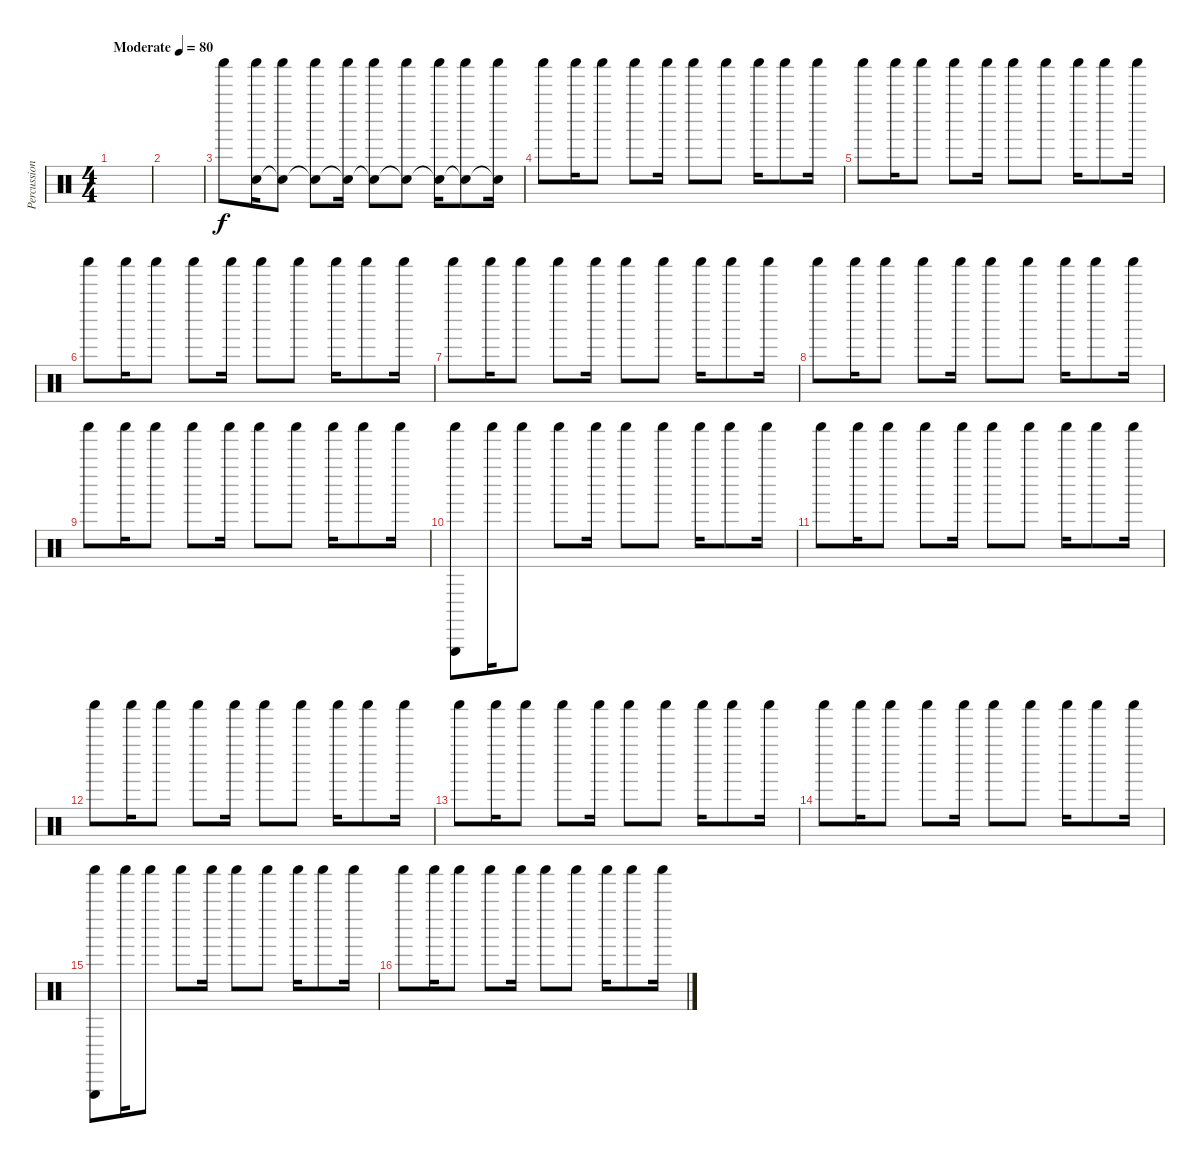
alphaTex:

\track ("Percussion" "Percussion") {instrument percussion}
\staff {score}
\articulation defaults
\ts (4 4)
\tempo (80 "Moderate")
\clef neutral
\ks c
|
|
"Shaker (hit)".8 ("Shaker (hit)" "Snare (hit)").16 ("Shaker (hit)" "Snare (hit)"{t}).8 ("Shaker (hit)" "Snare (hit)"{t}).8 ("Shaker (hit)" "Snare (hit)"{t}).16 ("Shaker (hit)" "Snare (hit)"{t}).8 ("Shaker (hit)" "Snare (hit)"{t}).8 ("Shaker (hit)" "Snare (hit)"{t}).16 ("Shaker (hit)" "Snare (hit)"{t}).8 ("Shaker (hit)" "Snare (hit)"{t}).16 |
"Shaker (hit)".8 "Shaker (hit)".16 "Shaker (hit)".8 "Shaker (hit)".8 "Shaker (hit)".16 "Shaker (hit)".8 "Shaker (hit)".8 "Shaker (hit)".16 "Shaker (hit)".8 "Shaker (hit)".16 |
"Shaker (hit)".8 "Shaker (hit)".16 "Shaker (hit)".8 "Shaker (hit)".8 "Shaker (hit)".16 "Shaker (hit)".8 "Shaker (hit)".8 "Shaker (hit)".16 "Shaker (hit)".8 "Shaker (hit)".16 |
"Shaker (hit)".8 "Shaker (hit)".16 "Shaker (hit)".8 "Shaker (hit)".8 "Shaker (hit)".16 "Shaker (hit)".8 "Shaker (hit)".8 "Shaker (hit)".16 "Shaker (hit)".8 "Shaker (hit)".16 |
"Shaker (hit)".8 "Shaker (hit)".16 "Shaker (hit)".8 "Shaker (hit)".8 "Shaker (hit)".16 "Shaker (hit)".8 "Shaker (hit)".8 "Shaker (hit)".16 "Shaker (hit)".8 "Shaker (hit)".16 |
"Shaker (hit)".8 "Shaker (hit)".16 "Shaker (hit)".8 "Shaker (hit)".8 "Shaker (hit)".16 "Shaker (hit)".8 "Shaker (hit)".8 "Shaker (hit)".16 "Shaker (hit)".8 "Shaker (hit)".16 |
"Shaker (hit)".8 "Shaker (hit)".16 "Shaker (hit)".8 "Shaker (hit)".8 "Shaker (hit)".16 "Shaker (hit)".8 "Shaker (hit)".8 "Shaker (hit)".16 "Shaker (hit)".8 "Shaker (hit)".16 |
("Shaker (hit)" "Triangle (hit)").8 "Shaker (hit)".16 "Shaker (hit)".8 "Shaker (hit)".8 "Shaker (hit)".16 "Shaker (hit)".8 "Shaker (hit)".8 "Shaker (hit)".16 "Shaker (hit)".8 "Shaker (hit)".16 |
"Shaker (hit)".8 "Shaker (hit)".16 "Shaker (hit)".8 "Shaker (hit)".8 "Shaker (hit)".16 "Shaker (hit)".8 "Shaker (hit)".8 "Shaker (hit)".16 "Shaker (hit)".8 "Shaker (hit)".16 |
"Shaker (hit)".8 "Shaker (hit)".16 "Shaker (hit)".8 "Shaker (hit)".8 "Shaker (hit)".16 "Shaker (hit)".8 "Shaker (hit)".8 "Shaker (hit)".16 "Shaker (hit)".8 "Shaker (hit)".16 |
"Shaker (hit)".8 "Shaker (hit)".16 "Shaker (hit)".8 "Shaker (hit)".8 "Shaker (hit)".16 "Shaker (hit)".8 "Shaker (hit)".8 "Shaker (hit)".16 "Shaker (hit)".8 "Shaker (hit)".16 |
"Shaker (hit)".8 "Shaker (hit)".16 "Shaker (hit)".8 "Shaker (hit)".8 "Shaker (hit)".16 "Shaker (hit)".8 "Shaker (hit)".8 "Shaker (hit)".16 "Shaker (hit)".8 "Shaker (hit)".16 |
("Shaker (hit)" "Triangle (hit)").8 "Shaker (hit)".16 "Shaker (hit)".8 "Shaker (hit)".8 "Shaker (hit)".16 "Shaker (hit)".8 "Shaker (hit)".8 "Shaker (hit)".16 "Shaker (hit)".8 "Shaker (hit)".16 |
"Shaker (hit)".8 "Shaker (hit)".16 "Shaker (hit)".8 "Shaker (hit)".8 "Shaker (hit)".16 "Shaker (hit)".8 "Shaker (hit)".8 "Shaker (hit)".16 "Shaker (hit)".8 "Shaker (hit)".16
